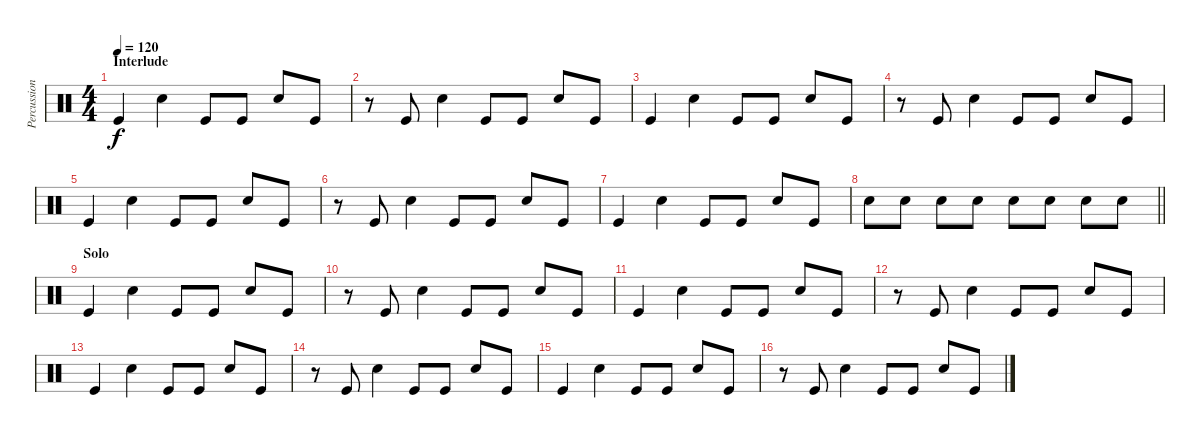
\track ("Percussion" "Percussion") {instrument percussion}
\staff {score}
\articulation defaults
\ts (4 4)
\section ("" "Interlude")
\tempo 120
\clef neutral
\ks c "Kick (hit)".4{dy f} "Snare (hit) 2".4 "Kick (hit)".8 "Kick (hit)".8 "Snare (hit) 2".8 "Kick (hit)".8
|
r.8 "Kick (hit)".8 "Snare (hit) 2".4 "Kick (hit)".8 "Kick (hit)".8 "Snare (hit) 2".8 "Kick (hit)".8 |
"Kick (hit)".4 "Snare (hit) 2".4 "Kick (hit)".8 "Kick (hit)".8 "Snare (hit) 2".8 "Kick (hit)".8 |
r.8 "Kick (hit)".8 "Snare (hit) 2".4 "Kick (hit)".8 "Kick (hit)".8 "Snare (hit) 2".8 "Kick (hit)".8 |
"Kick (hit)".4 "Snare (hit) 2".4 "Kick (hit)".8 "Kick (hit)".8 "Snare (hit) 2".8 "Kick (hit)".8 |
r.8 "Kick (hit)".8 "Snare (hit) 2".4 "Kick (hit)".8 "Kick (hit)".8 "Snare (hit) 2".8 "Kick (hit)".8 |
"Kick (hit)".4 "Snare (hit) 2".4 "Kick (hit)".8 "Kick (hit)".8 "Snare (hit) 2".8 "Kick (hit)".8 |
\barLineRight lightlight "Snare (hit) 2".8 "Snare (hit) 2".8 "Snare (hit) 2".8 "Snare (hit) 2".8 "Snare (hit) 2".8 "Snare (hit) 2".8 "Snare (hit) 2".8 "Snare (hit) 2".8
|
\section ("" "Solo")
"Kick (hit)".4 "Snare (hit) 2".4 "Kick (hit)".8 "Kick (hit)".8 "Snare (hit) 2".8 "Kick (hit)".8 |
r.8 "Kick (hit)".8 "Snare (hit) 2".4 "Kick (hit)".8 "Kick (hit)".8 "Snare (hit) 2".8 "Kick (hit)".8 |
"Kick (hit)".4 "Snare (hit) 2".4 "Kick (hit)".8 "Kick (hit)".8 "Snare (hit) 2".8 "Kick (hit)".8 |
r.8 "Kick (hit)".8 "Snare (hit) 2".4 "Kick (hit)".8 "Kick (hit)".8 "Snare (hit) 2".8 "Kick (hit)".8 |
"Kick (hit)".4 "Snare (hit) 2".4 "Kick (hit)".8 "Kick (hit)".8 "Snare (hit) 2".8 "Kick (hit)".8 |
r.8 "Kick (hit)".8 "Snare (hit) 2".4 "Kick (hit)".8 "Kick (hit)".8 "Snare (hit) 2".8 "Kick (hit)".8 |
"Kick (hit)".4 "Snare (hit) 2".4 "Kick (hit)".8 "Kick (hit)".8 "Snare (hit) 2".8 "Kick (hit)".8 |
r.8 "Kick (hit)".8 "Snare (hit) 2".4 "Kick (hit)".8 "Kick (hit)".8 "Snare (hit) 2".8 "Kick (hit)".8
